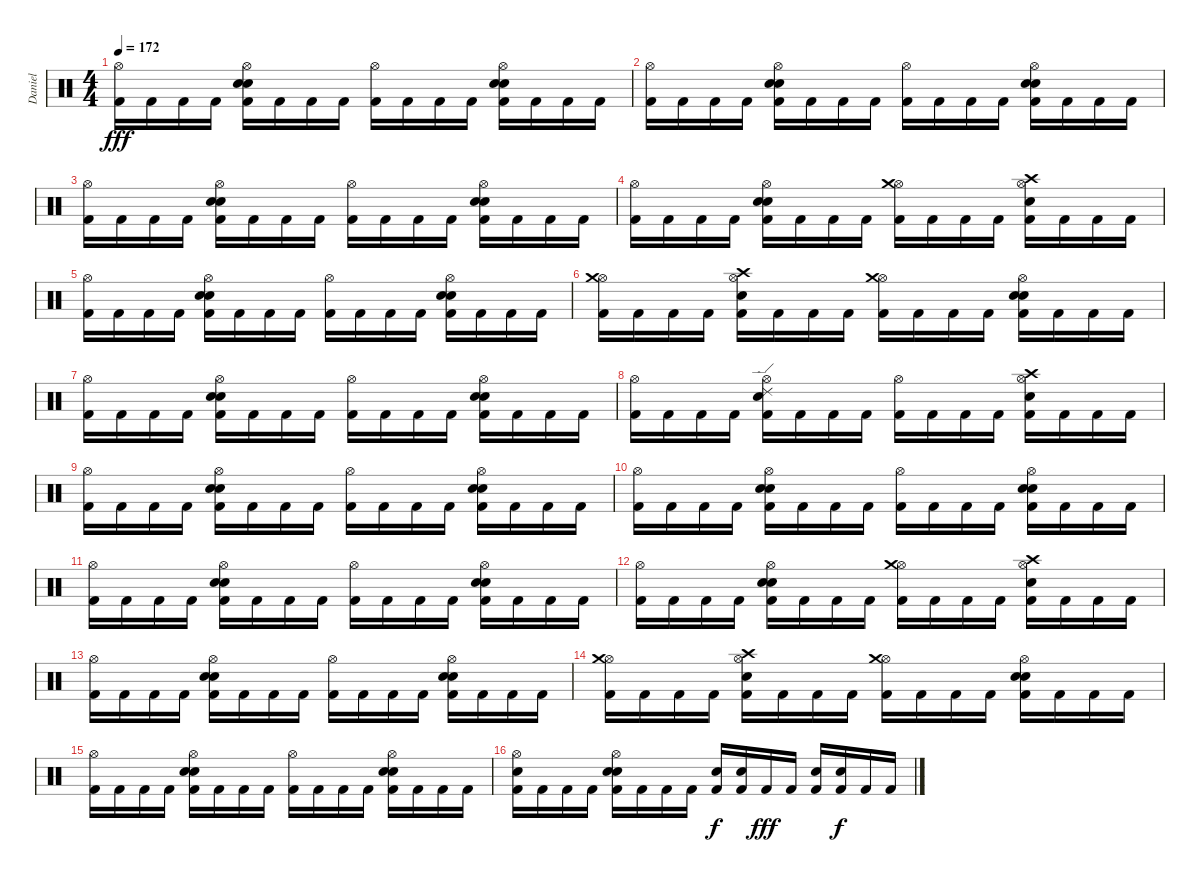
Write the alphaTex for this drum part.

\track ("Daniel" "Daniel") {instrument percussion}
\staff {score}
\articulation defaults
\ts (4 4)
\tempo 172
\clef neutral
\ks c
("Hi-Hat (open)" "Kick (hit) 2").16{dy fff} "Kick (hit) 2".16 "Kick (hit) 2".16 "Kick (hit) 2".16 ("Hi-Hat (open)" "Electric Snare (hit)" "Snare (hit) 2" "Kick (hit) 2").16 "Kick (hit) 2".16 "Kick (hit) 2".16 "Kick (hit) 2".16 ("Hi-Hat (open)" "Kick (hit) 2").16 "Kick (hit) 2".16 "Kick (hit) 2".16 "Kick (hit) 2".16 ("Hi-Hat (open)" "Electric Snare (hit)" "Snare (hit) 2" "Kick (hit) 2").16 "Kick (hit) 2".16 "Kick (hit) 2".16 "Kick (hit) 2".16 |
("Hi-Hat (open)" "Kick (hit) 2").16 "Kick (hit) 2".16 "Kick (hit) 2".16 "Kick (hit) 2".16 ("Hi-Hat (open)" "Electric Snare (hit)" "Snare (hit) 2" "Kick (hit) 2").16 "Kick (hit) 2".16 "Kick (hit) 2".16 "Kick (hit) 2".16 ("Hi-Hat (open)" "Kick (hit) 2").16 "Kick (hit) 2".16 "Kick (hit) 2".16 "Kick (hit) 2".16 ("Hi-Hat (open)" "Electric Snare (hit)" "Snare (hit) 2" "Kick (hit) 2").16 "Kick (hit) 2".16 "Kick (hit) 2".16 "Kick (hit) 2".16 |
("Hi-Hat (open)" "Kick (hit) 2").16 "Kick (hit) 2".16 "Kick (hit) 2".16 "Kick (hit) 2".16 ("Hi-Hat (open)" "Electric Snare (hit)" "Snare (hit) 2" "Kick (hit) 2").16 "Kick (hit) 2".16 "Kick (hit) 2".16 "Kick (hit) 2".16 ("Hi-Hat (open)" "Kick (hit) 2").16 "Kick (hit) 2".16 "Kick (hit) 2".16 "Kick (hit) 2".16 ("Hi-Hat (open)" "Electric Snare (hit)" "Snare (hit) 2" "Kick (hit) 2").16 "Kick (hit) 2".16 "Kick (hit) 2".16 "Kick (hit) 2".16 |
("Hi-Hat (open)" "Kick (hit) 2").16 "Kick (hit) 2".16 "Kick (hit) 2".16 "Kick (hit) 2".16 ("Hi-Hat (open)" "Electric Snare (hit)" "Snare (hit) 2" "Kick (hit) 2").16 "Kick (hit) 2".16 "Kick (hit) 2".16 "Kick (hit) 2".16 ("Hi-Hat (open)" "Crash medium (hit)" "Kick (hit) 2").16 "Kick (hit) 2".16 "Kick (hit) 2".16 "Kick (hit) 2".16 ("Hi-Hat (open)" "Electric Snare (hit)" "Crash high (hit)" "Kick (hit) 2").16 "Kick (hit) 2".16 "Kick (hit) 2".16 "Kick (hit) 2".16 |
("Hi-Hat (open)" "Kick (hit) 2").16 "Kick (hit) 2".16 "Kick (hit) 2".16 "Kick (hit) 2".16 ("Hi-Hat (open)" "Electric Snare (hit)" "Snare (hit) 2" "Kick (hit) 2").16 "Kick (hit) 2".16 "Kick (hit) 2".16 "Kick (hit) 2".16 ("Hi-Hat (open)" "Kick (hit) 2").16 "Kick (hit) 2".16 "Kick (hit) 2".16 "Kick (hit) 2".16 ("Hi-Hat (open)" "Electric Snare (hit)" "Snare (hit) 2" "Kick (hit) 2").16 "Kick (hit) 2".16 "Kick (hit) 2".16 "Kick (hit) 2".16 |
("Hi-Hat (open)" "Crash medium (hit)" "Kick (hit) 2").16 "Kick (hit) 2".16 "Kick (hit) 2".16 "Kick (hit) 2".16 ("Hi-Hat (open)" "Electric Snare (hit)" "Crash high (hit)" "Kick (hit) 2").16 "Kick (hit) 2".16 "Kick (hit) 2".16 "Kick (hit) 2".16 ("Hi-Hat (open)" "Crash medium (hit)" "Kick (hit) 2").16 "Kick (hit) 2".16 "Kick (hit) 2".16 "Kick (hit) 2".16 ("Hi-Hat (open)" "Electric Snare (hit)" "Snare (hit) 2" "Kick (hit) 2").16 "Kick (hit) 2".16 "Kick (hit) 2".16 "Kick (hit) 2".16 |
("Hi-Hat (open)" "Kick (hit) 2").16 "Kick (hit) 2".16 "Kick (hit) 2".16 "Kick (hit) 2".16 ("Hi-Hat (open)" "Electric Snare (hit)" "Snare (hit) 2" "Kick (hit) 2").16 "Kick (hit) 2".16 "Kick (hit) 2".16 "Kick (hit) 2".16 ("Hi-Hat (open)" "Kick (hit) 2").16 "Kick (hit) 2".16 "Kick (hit) 2".16 "Kick (hit) 2".16 ("Hi-Hat (open)" "Electric Snare (hit)" "Snare (hit) 2" "Kick (hit) 2").16 "Kick (hit) 2".16 "Kick (hit) 2".16 "Kick (hit) 2".16 |
("Hi-Hat (open)" "Kick (hit) 2").16 "Kick (hit) 2".16 "Kick (hit) 2".16 "Kick (hit) 2".16 ("Hi-Hat (open)" "Electric Snare (hit)" "Ride (edge) 2" "Kick (hit) 2").16 "Kick (hit) 2".16 "Kick (hit) 2".16 "Kick (hit) 2".16 ("Hi-Hat (open)" "Kick (hit) 2").16 "Kick (hit) 2".16 "Kick (hit) 2".16 "Kick (hit) 2".16 ("Hi-Hat (open)" "Electric Snare (hit)" "Crash high (hit)" "Kick (hit) 2").16 "Kick (hit) 2".16 "Kick (hit) 2".16 "Kick (hit) 2".16 |
("Hi-Hat (open)" "Kick (hit) 2").16 "Kick (hit) 2".16 "Kick (hit) 2".16 "Kick (hit) 2".16 ("Hi-Hat (open)" "Electric Snare (hit)" "Snare (hit) 2" "Kick (hit) 2").16 "Kick (hit) 2".16 "Kick (hit) 2".16 "Kick (hit) 2".16 ("Hi-Hat (open)" "Kick (hit) 2").16 "Kick (hit) 2".16 "Kick (hit) 2".16 "Kick (hit) 2".16 ("Hi-Hat (open)" "Electric Snare (hit)" "Snare (hit) 2" "Kick (hit) 2").16 "Kick (hit) 2".16 "Kick (hit) 2".16 "Kick (hit) 2".16 |
("Hi-Hat (open)" "Kick (hit) 2").16 "Kick (hit) 2".16 "Kick (hit) 2".16 "Kick (hit) 2".16 ("Hi-Hat (open)" "Electric Snare (hit)" "Snare (hit) 2" "Kick (hit) 2").16 "Kick (hit) 2".16 "Kick (hit) 2".16 "Kick (hit) 2".16 ("Hi-Hat (open)" "Kick (hit) 2").16 "Kick (hit) 2".16 "Kick (hit) 2".16 "Kick (hit) 2".16 ("Hi-Hat (open)" "Electric Snare (hit)" "Snare (hit) 2" "Kick (hit) 2").16 "Kick (hit) 2".16 "Kick (hit) 2".16 "Kick (hit) 2".16 |
("Hi-Hat (open)" "Kick (hit) 2").16 "Kick (hit) 2".16 "Kick (hit) 2".16 "Kick (hit) 2".16 ("Hi-Hat (open)" "Electric Snare (hit)" "Snare (hit) 2" "Kick (hit) 2").16 "Kick (hit) 2".16 "Kick (hit) 2".16 "Kick (hit) 2".16 ("Hi-Hat (open)" "Kick (hit) 2").16 "Kick (hit) 2".16 "Kick (hit) 2".16 "Kick (hit) 2".16 ("Hi-Hat (open)" "Electric Snare (hit)" "Snare (hit) 2" "Kick (hit) 2").16 "Kick (hit) 2".16 "Kick (hit) 2".16 "Kick (hit) 2".16 |
("Hi-Hat (open)" "Kick (hit) 2").16 "Kick (hit) 2".16 "Kick (hit) 2".16 "Kick (hit) 2".16 ("Hi-Hat (open)" "Electric Snare (hit)" "Snare (hit) 2" "Kick (hit) 2").16 "Kick (hit) 2".16 "Kick (hit) 2".16 "Kick (hit) 2".16 ("Hi-Hat (open)" "Crash medium (hit)" "Kick (hit) 2").16 "Kick (hit) 2".16 "Kick (hit) 2".16 "Kick (hit) 2".16 ("Hi-Hat (open)" "Electric Snare (hit)" "Crash high (hit)" "Kick (hit) 2").16 "Kick (hit) 2".16 "Kick (hit) 2".16 "Kick (hit) 2".16 |
("Hi-Hat (open)" "Kick (hit) 2").16 "Kick (hit) 2".16 "Kick (hit) 2".16 "Kick (hit) 2".16 ("Hi-Hat (open)" "Electric Snare (hit)" "Snare (hit) 2" "Kick (hit) 2").16 "Kick (hit) 2".16 "Kick (hit) 2".16 "Kick (hit) 2".16 ("Hi-Hat (open)" "Kick (hit) 2").16 "Kick (hit) 2".16 "Kick (hit) 2".16 "Kick (hit) 2".16 ("Hi-Hat (open)" "Electric Snare (hit)" "Snare (hit) 2" "Kick (hit) 2").16 "Kick (hit) 2".16 "Kick (hit) 2".16 "Kick (hit) 2".16 |
("Hi-Hat (open)" "Crash medium (hit)" "Kick (hit) 2").16 "Kick (hit) 2".16 "Kick (hit) 2".16 "Kick (hit) 2".16 ("Hi-Hat (open)" "Electric Snare (hit)" "Crash high (hit)" "Kick (hit) 2").16 "Kick (hit) 2".16 "Kick (hit) 2".16 "Kick (hit) 2".16 ("Hi-Hat (open)" "Crash medium (hit)" "Kick (hit) 2").16 "Kick (hit) 2".16 "Kick (hit) 2".16 "Kick (hit) 2".16 ("Hi-Hat (open)" "Electric Snare (hit)" "Snare (hit) 2" "Kick (hit) 2").16 "Kick (hit) 2".16 "Kick (hit) 2".16 "Kick (hit) 2".16 |
("Hi-Hat (open)" "Kick (hit) 2").16 "Kick (hit) 2".16 "Kick (hit) 2".16 "Kick (hit) 2".16 ("Hi-Hat (open)" "Electric Snare (hit)" "Snare (hit) 2" "Kick (hit) 2").16 "Kick (hit) 2".16 "Kick (hit) 2".16 "Kick (hit) 2".16 ("Hi-Hat (open)" "Kick (hit) 2").16 "Kick (hit) 2".16 "Kick (hit) 2".16 "Kick (hit) 2".16 ("Hi-Hat (open)" "Electric Snare (hit)" "Snare (hit) 2" "Kick (hit) 2").16 "Kick (hit) 2".16 "Kick (hit) 2".16 "Kick (hit) 2".16 |
("Hi-Hat (open)" "Snare (hit) 2" "Kick (hit) 2").16 "Kick (hit) 2".16 "Kick (hit) 2".16 "Kick (hit) 2".16 ("Hi-Hat (open)" "Electric Snare (hit)" "Snare (hit) 2" "Kick (hit) 2").16 "Kick (hit) 2".16 "Kick (hit) 2".16 "Kick (hit) 2".16 ("Snare (hit) 2" "Kick (hit) 2").16{dy f} ("Snare (hit) 2" "Kick (hit) 2").16 "Kick (hit) 2".16{dy fff} "Kick (hit) 2".16 ("Snare (hit) 2" "Kick (hit) 2").16 ("Snare (hit) 2" "Kick (hit) 2").16{dy f} "Kick (hit) 2".16 "Kick (hit) 2".16
